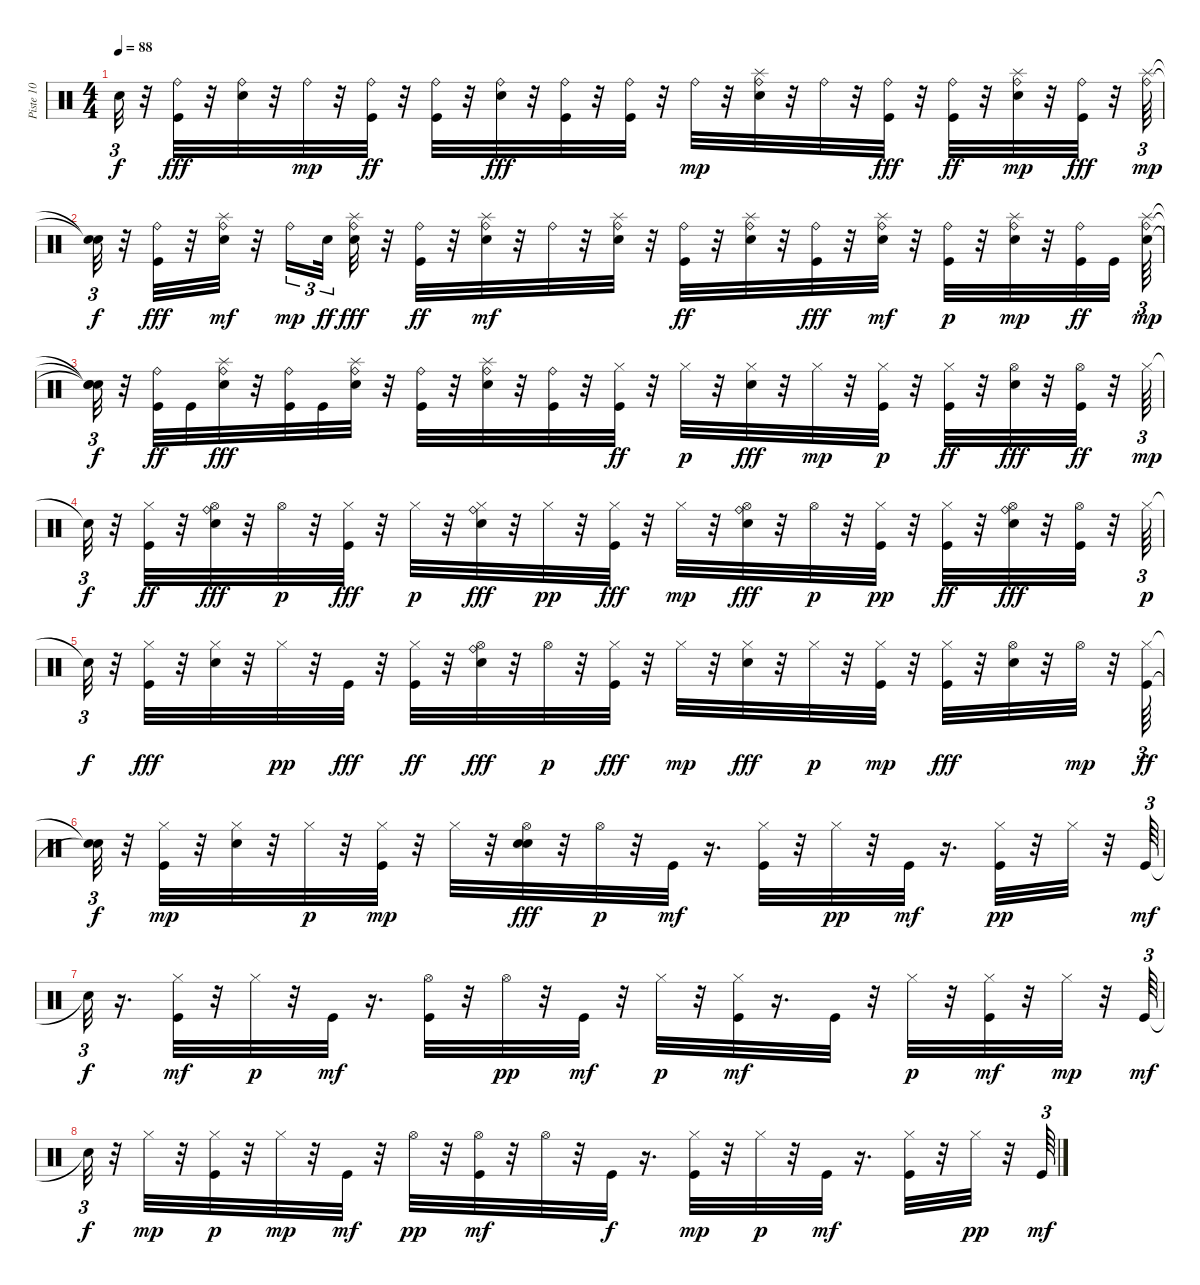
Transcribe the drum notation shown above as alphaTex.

\track ("Piste 10" "Piste 10") {instrument percussion}
\staff {score}
\articulation defaults
\ts (4 4)
\tempo 88
\clef neutral
\ks c "Snare (hit)"{t}.32{tu (3 2) dy f}
r.32 ("Ride (bell)" "Kick (hit)").32{dy fff} r.32 ("Ride (bell)" "Electric Snare (hit)").32 r.32 "Ride (bell)".32{dy mp} r.32 ("Ride (bell)" "Kick (hit)").32{dy ff} r.32 ("Ride (bell)" "Kick (hit)").32 r.32 ("Ride (bell)" "Electric Snare (hit)").32{dy fff} r.32 ("Ride (bell)" "Kick (hit)").32 r.32 ("Ride (bell)" "Kick (hit)").32 r.32 "Ride (bell)".32{dy mp} r.32 ("Ride (bell)" "Electric Snare (hit)" "Splash (hit)").32 r.32 "Ride (bell)".32 r.32 ("Ride (bell)" "Kick (hit)").32{dy fff} r.32 ("Ride (bell)" "Kick (hit)").32{dy ff} r.32 ("Ride (bell)" "Electric Snare (hit)" "Splash (hit)").32{dy mp} r.32 ("Ride (bell)" "Kick (hit)").32{dy fff} r.32 ("Ride (bell)" "Splash (hit)").64{tu (3 2) dy mp} |
("Snare (hit)"{t} "Snare (hit)"{t}).32{tu (3 2) dy f} r.32 ("Ride (bell)" "Kick (hit)").32{dy fff} r.32 ("Ride (bell)" "Electric Snare (hit)" "Splash (hit)").32{dy mf} r.32 "Ride (bell)".16{tu (3 2) dy mp} "Electric Snare (hit)".32{tu (3 2) dy ff} ("Ride (bell)" "Splash (hit)" "Electric Snare (hit)").32{dy fff} r.32 ("Ride (bell)" "Kick (hit)").32{dy ff} r.32 ("Ride (bell)" "Electric Snare (hit)" "Splash (hit)").32{dy mf} r.32 "Ride (bell)".32 r.32 ("Ride (bell)" "Electric Snare (hit)" "Splash (hit)").32 r.32 ("Ride (bell)" "Kick (hit)").32{dy ff} r.32 ("Ride (bell)" "Electric Snare (hit)" "Splash (hit)").32 r.32 ("Ride (bell)" "Kick (hit)").32{dy fff} r.32 ("Ride (bell)" "Electric Snare (hit)" "Splash (hit)").32{dy mf} r.32 ("Kick (hit)" "Ride (bell)").32{dy p} r.32 ("Electric Snare (hit)" "Ride (bell)" "Splash (hit)").32{dy mp} r.32 ("Ride (bell)" "Kick (hit)").32{dy ff} "Kick (hit)".32 ("Ride (bell)" "Electric Snare (hit)" "Splash (hit)").64{tu (3 2) dy mp} |
("Snare (hit)"{t} "Snare (hit)"{t} "Snare (hit)"{t}).32{tu (3 2) dy f} r.32 ("Ride (bell)" "Kick (hit)").32{dy ff} "Kick (hit)".32 ("Ride (bell)" "Electric Snare (hit)" "Splash (hit)").32{dy fff} r.32 ("Ride (bell)" "Kick (hit)").32 "Kick (hit)".32 ("Ride (bell)" "Splash (hit)" "Electric Snare (hit)").32 r.32 ("Ride (bell)" "Kick (hit)").32 r.32 ("Ride (bell)" "Splash (hit)" "Electric Snare (hit)").32 r.32 ("Ride (bell)" "Kick (hit)").32 r.32 ("Hi-Hat (closed)" "Kick (hit)").32{dy ff} r.32 "Hi-Hat (closed)".32{dy p} r.32 ("Electric Snare (hit)" "Hi-Hat (closed)").32{dy fff} r.32 "Hi-Hat (closed)".32{dy mp} r.32 ("Hi-Hat (closed)" "Kick (hit)").32{dy p} r.32 ("Hi-Hat (closed)" "Kick (hit)").32{dy ff} r.32 ("Hi-Hat (open)" "Electric Snare (hit)").32{dy fff} r.32 ("Hi-Hat (open)" "Kick (hit)").32{dy ff} r.32 "Hi-Hat (closed)".64{tu (3 2) dy mp} |
"Snare (hit)"{t}.32{tu (3 2) dy f} r.32 ("Hi-Hat (closed)" "Kick (hit)").32{dy ff} r.32 ("Hi-Hat (open)" "Ride (bell)" "Electric Snare (hit)").32{dy fff} r.32 "Hi-Hat (open)".32{dy p} r.32 ("Hi-Hat (closed)" "Kick (hit)").32{dy fff} r.32 "Hi-Hat (closed)".32{dy p} r.32 ("Hi-Hat (closed)" "Ride (bell)" "Electric Snare (hit)").32{dy fff} r.32 "Hi-Hat (closed)".32{dy pp} r.32 ("Hi-Hat (closed)" "Kick (hit)").32{dy fff} r.32 "Hi-Hat (closed)".32{dy mp} r.32 ("Hi-Hat (open)" "Ride (bell)" "Electric Snare (hit)").32{dy fff} r.32 "Hi-Hat (open)".32{dy p} r.32 ("Hi-Hat (closed)" "Kick (hit)").32{dy pp} r.32 ("Hi-Hat (closed)" "Kick (hit)").32{dy ff} r.32 ("Hi-Hat (open)" "Ride (bell)" "Electric Snare (hit)").32{dy fff} r.32 ("Hi-Hat (open)" "Kick (hit)").32 r.32 "Hi-Hat (closed)".64{tu (3 2) dy p} |
"Snare (hit)"{t}.32{tu (3 2) dy f} r.32 ("Hi-Hat (closed)" "Kick (hit)").32{dy fff} r.32 ("Hi-Hat (closed)" "Electric Snare (hit)").32 r.32 "Hi-Hat (closed)".32{dy pp} r.32 "Kick (hit)".32{dy fff} r.32 ("Hi-Hat (closed)" "Kick (hit)").32{dy ff} r.32 ("Ride (bell)" "Hi-Hat (open)" "Electric Snare (hit)").32{dy fff} r.32 "Hi-Hat (open)".32{dy p} r.32 ("Hi-Hat (closed)" "Kick (hit)").32{dy fff} r.32 "Hi-Hat (closed)".32{dy mp} r.32 ("Hi-Hat (closed)" "Electric Snare (hit)").32{dy fff} r.32 "Hi-Hat (closed)".32{dy p} r.32 ("Hi-Hat (closed)" "Kick (hit)").32{dy mp} r.32 ("Hi-Hat (closed)" "Kick (hit)").32{dy fff} r.32 ("Hi-Hat (open)" "Electric Snare (hit)").32 r.32 "Hi-Hat (open)".32{dy mp} r.32 ("Hi-Hat (closed)" "Kick (hit)").64{tu (3 2) dy ff} |
("Snare (hit)"{t} "Snare (hit)"{t}).32{tu (3 2) dy f} r.32 ("Kick (hit)" "Hi-Hat (closed)").32{dy mp} r.32 ("Electric Snare (hit)" "Hi-Hat (closed)").32 r.32 "Hi-Hat (closed)".32{dy p} r.32 ("Kick (hit)" "Hi-Hat (closed)").32{dy mp} r.32 "Hi-Hat (closed)".32 r.32 ("Electric Snare (hit)" "Hi-Hat (open)" "Electric Snare (hit)").32{dy fff} r.32 "Hi-Hat (open)".32{dy p} r.32 "Kick (hit)".32{dy mf} r.16{d} ("Hi-Hat (closed)" "Kick (hit)").32 r.32 "Hi-Hat (closed)".32{dy pp} r.32 "Kick (hit)".32{dy mf} r.16{d} ("Hi-Hat (closed)" "Kick (hit)").32{dy pp} r.32 "Hi-Hat (closed)".32 r.32 "Kick (hit)".64{tu (3 2) dy mf} |
"Snare (hit)"{t}.32{tu (3 2) dy f} r.16{d} ("Hi-Hat (closed)" "Kick (hit)").32{dy mf} r.32 "Hi-Hat (closed)".32{dy p} r.32 "Kick (hit)".32{dy mf} r.16{d} ("Hi-Hat (open)" "Kick (hit)").32 r.32 "Hi-Hat (open)".32{dy pp} r.32 "Kick (hit)".32{dy mf} r.32 "Hi-Hat (closed)".32{dy p} r.32 ("Hi-Hat (closed)" "Kick (hit)").32{dy mf} r.16{d} "Kick (hit)".32 r.32 "Hi-Hat (closed)".32{dy p} r.32 ("Hi-Hat (closed)" "Kick (hit)").32{dy mf} r.32 "Hi-Hat (closed)".32{dy mp} r.32 "Kick (hit)".64{tu (3 2) dy mf} |
"Snare (hit)"{t}.32{tu (3 2) dy f} r.32 "Hi-Hat (closed)".32{dy mp} r.32 ("Kick (hit)" "Hi-Hat (closed)").32{dy p} r.32 "Hi-Hat (closed)".32{dy mp} r.32 "Kick (hit)".32{dy mf} r.32 "Hi-Hat (open)".32{dy pp} r.32 ("Hi-Hat (open)" "Kick (hit)").32{dy mf} r.32 "Hi-Hat (open)".32 r.32 "Kick (hit)".32{dy f} r.16{d} ("Hi-Hat (closed)" "Kick (hit)").32{dy mp} r.32 "Hi-Hat (closed)".32{dy p} r.32 "Kick (hit)".32{dy mf} r.16{d} ("Hi-Hat (closed)" "Kick (hit)").32 r.32 "Hi-Hat (closed)".32{dy pp} r.32 "Kick (hit)".64{tu (3 2) dy mf}
